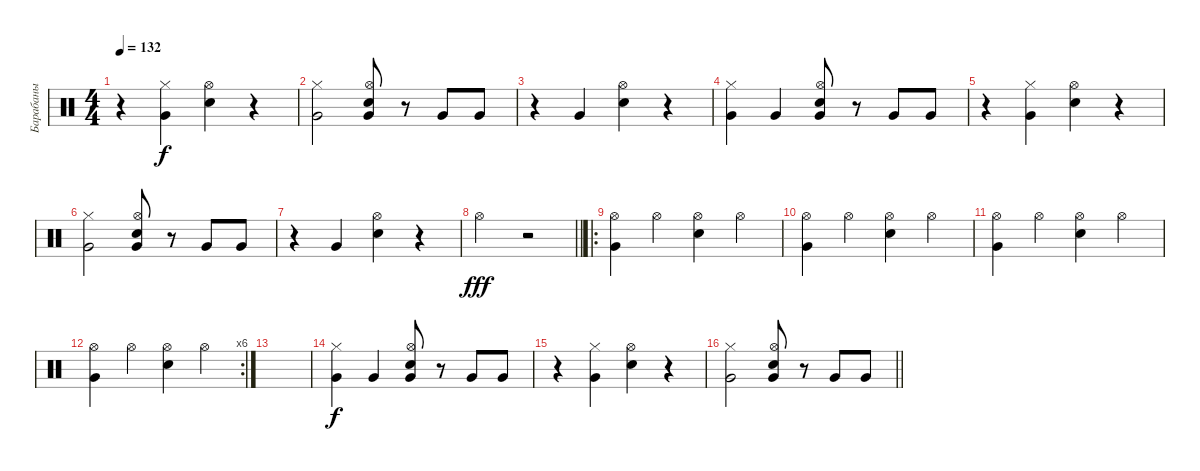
\track ("Барабаны" "Барабаны") {instrument percussion}
\staff {score}
\articulation defaults
\ts (4 4)
\tempo 132
\clef neutral
\ks c
r.4{dy f} ("Very Low Tom (hit)" "Hi-Hat (closed)").4 ("Snare (hit) 2" "Hi-Hat (open)").4 r.4 |
("Hi-Hat (closed)" "Very Low Tom (hit)").2 ("Electric Snare (hit)" "Hi-Hat (open)" "Very Low Tom (hit)").8 r.8 "Very Low Tom (hit)".8 "Very Low Tom (hit)".8 |
r.4 "Very Low Tom (hit)".4 ("Snare (hit) 2" "Hi-Hat (open)").4 r.4 |
("Hi-Hat (closed)" "Very Low Tom (hit)").4 "Very Low Tom (hit)".4 ("Electric Snare (hit)" "Hi-Hat (open)" "Very Low Tom (hit)").8 r.8 "Very Low Tom (hit)".8 "Very Low Tom (hit)".8 |
r.4 ("Very Low Tom (hit)" "Hi-Hat (closed)").4 ("Snare (hit) 2" "Hi-Hat (open)").4 r.4 |
("Hi-Hat (closed)" "Very Low Tom (hit)").2 ("Electric Snare (hit)" "Hi-Hat (open)" "Very Low Tom (hit)").8 r.8 "Very Low Tom (hit)".8 "Very Low Tom (hit)".8 |
r.4 "Very Low Tom (hit)".4 ("Snare (hit) 2" "Hi-Hat (open)").4 r.4 |
\barLineRight lightlight "Hi-Hat (open)".2{dy fff}
r.2 |
\ro
("Hi-Hat (open)" "Very Low Tom (hit)").4 "Hi-Hat (open)".4 ("Hi-Hat (open)" "Snare (hit) 2").4 "Hi-Hat (open)".4 |
("Hi-Hat (open)" "Very Low Tom (hit)").4 "Hi-Hat (open)".4 ("Hi-Hat (open)" "Snare (hit) 2").4 "Hi-Hat (open)".4 |
("Hi-Hat (open)" "Very Low Tom (hit)").4 "Hi-Hat (open)".4 ("Hi-Hat (open)" "Snare (hit) 2").4 "Hi-Hat (open)".4 |
\rc 6
("Hi-Hat (open)" "Very Low Tom (hit)").4 "Hi-Hat (open)".4 ("Hi-Hat (open)" "Snare (hit) 2").4 "Hi-Hat (open)".4 |
|
("Hi-Hat (closed)" "Very Low Tom (hit)").4{dy f} "Very Low Tom (hit)".4 ("Electric Snare (hit)" "Hi-Hat (open)" "Very Low Tom (hit)").8 r.8 "Very Low Tom (hit)".8 "Very Low Tom (hit)".8 |
r.4 ("Very Low Tom (hit)" "Hi-Hat (closed)").4 ("Snare (hit) 2" "Hi-Hat (open)").4 r.4 |
\barLineRight lightlight
("Hi-Hat (closed)" "Very Low Tom (hit)").2 ("Electric Snare (hit)" "Hi-Hat (open)" "Very Low Tom (hit)").8 r.8 "Very Low Tom (hit)".8 "Very Low Tom (hit)".8
